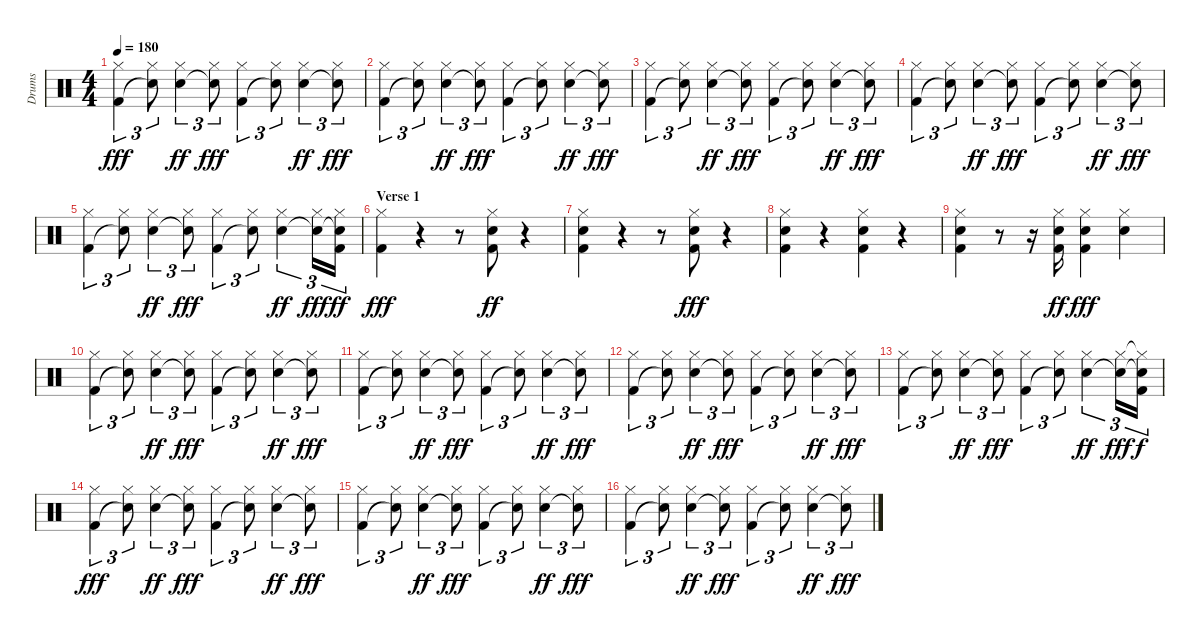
\track ("Drums" "Drums") {instrument percussion}
\staff {score}
\articulation defaults
\ts (4 4)
\tempo 180
\clef neutral
\ks c
("Hi-Hat (closed)" "Kick (hit) 2").4{tu (3 2) dy fff} ("Hi-Hat (closed)" "Snare (hit)"{t}).8{tu (3 2)} ("Hi-Hat (closed)" "Electric Snare (hit)").4{tu (3 2) dy ff} ("Hi-Hat (closed)" "Snare (hit)"{t}).8{tu (3 2) dy fff} ("Hi-Hat (closed)" "Kick (hit) 2").4{tu (3 2)} ("Hi-Hat (closed)" "Snare (hit)"{t}).8{tu (3 2)} ("Hi-Hat (closed)" "Electric Snare (hit)").4{tu (3 2) dy ff} ("Hi-Hat (closed)" "Snare (hit)"{t}).8{tu (3 2) dy fff} |
("Hi-Hat (closed)" "Kick (hit) 2").4{tu (3 2)} ("Hi-Hat (closed)" "Snare (hit)"{t}).8{tu (3 2)} ("Hi-Hat (closed)" "Electric Snare (hit)").4{tu (3 2) dy ff} ("Hi-Hat (closed)" "Snare (hit)"{t}).8{tu (3 2) dy fff} ("Hi-Hat (closed)" "Kick (hit) 2").4{tu (3 2)} ("Hi-Hat (closed)" "Snare (hit)"{t}).8{tu (3 2)} ("Hi-Hat (closed)" "Electric Snare (hit)").4{tu (3 2) dy ff} ("Hi-Hat (closed)" "Snare (hit)"{t}).8{tu (3 2) dy fff} |
("Hi-Hat (closed)" "Kick (hit) 2").4{tu (3 2)} ("Hi-Hat (closed)" "Snare (hit)"{t}).8{tu (3 2)} ("Hi-Hat (closed)" "Electric Snare (hit)").4{tu (3 2) dy ff} ("Hi-Hat (closed)" "Snare (hit)"{t}).8{tu (3 2) dy fff} ("Hi-Hat (closed)" "Kick (hit) 2").4{tu (3 2)} ("Hi-Hat (closed)" "Snare (hit)"{t}).8{tu (3 2)} ("Hi-Hat (closed)" "Electric Snare (hit)").4{tu (3 2) dy ff} ("Hi-Hat (closed)" "Snare (hit)"{t}).8{tu (3 2) dy fff} |
("Hi-Hat (closed)" "Kick (hit) 2").4{tu (3 2)} ("Hi-Hat (closed)" "Snare (hit)"{t}).8{tu (3 2)} ("Hi-Hat (closed)" "Electric Snare (hit)").4{tu (3 2) dy ff} ("Hi-Hat (closed)" "Snare (hit)"{t}).8{tu (3 2) dy fff} ("Hi-Hat (closed)" "Kick (hit) 2").4{tu (3 2)} ("Hi-Hat (closed)" "Snare (hit)"{t}).8{tu (3 2)} ("Hi-Hat (closed)" "Electric Snare (hit)").4{tu (3 2) dy ff} ("Hi-Hat (closed)" "Snare (hit)"{t}).8{tu (3 2) dy fff} |
("Hi-Hat (closed)" "Kick (hit) 2").4{tu (3 2)} ("Hi-Hat (closed)" "Snare (hit)"{t}).8{tu (3 2)} ("Hi-Hat (closed)" "Electric Snare (hit)").4{tu (3 2) dy ff} ("Hi-Hat (closed)" "Snare (hit)"{t}).8{tu (3 2) dy fff} ("Hi-Hat (closed)" "Kick (hit) 2").4{tu (3 2)} ("Hi-Hat (closed)" "Snare (hit)"{t}).8{tu (3 2)} ("Hi-Hat (closed)" "Electric Snare (hit)").4{tu (3 2) dy ff} ("Hi-Hat (closed)" "Snare (hit)"{t}).16{tu (3 2) dy fff} ("Hi-Hat (closed)" "Snare (hit)"{t} "Kick (hit) 2").16{tu (3 2) dy ff} |
\section ("" "Verse 1")
("Hi-Hat (closed)" "Kick (hit) 2").4{dy fff} r.4 r.8 ("Hi-Hat (closed)" "Electric Snare (hit)" "Kick (hit) 2").8{dy ff} r.4 |
("Hi-Hat (closed)" "Electric Snare (hit)" "Kick (hit) 2").4 r.4 r.8 ("Hi-Hat (closed)" "Electric Snare (hit)" "Kick (hit) 2").8{dy fff} r.4 |
("Hi-Hat (closed)" "Electric Snare (hit)" "Kick (hit) 2").4 r.4 ("Hi-Hat (closed)" "Electric Snare (hit)" "Kick (hit) 2").4 r.4 |
("Hi-Hat (closed)" "Electric Snare (hit)" "Kick (hit) 2").4 r.8 r.16 ("Hi-Hat (closed)" "Electric Snare (hit)" "Kick (hit) 2").16{dy ff} ("Hi-Hat (closed)" "Electric Snare (hit)" "Kick (hit) 2").4{dy fff} ("Hi-Hat (closed)" "Electric Snare (hit)").4 |
("Hi-Hat (closed)" "Kick (hit) 2").4{tu (3 2)} ("Hi-Hat (closed)" "Snare (hit)"{t}).8{tu (3 2)} ("Hi-Hat (closed)" "Electric Snare (hit)").4{tu (3 2) dy ff} ("Hi-Hat (closed)" "Snare (hit)"{t}).8{tu (3 2) dy fff} ("Hi-Hat (closed)" "Kick (hit) 2").4{tu (3 2)} ("Hi-Hat (closed)" "Snare (hit)"{t}).8{tu (3 2)} ("Hi-Hat (closed)" "Electric Snare (hit)").4{tu (3 2) dy ff} ("Hi-Hat (closed)" "Snare (hit)"{t}).8{tu (3 2) dy fff} |
("Hi-Hat (closed)" "Kick (hit) 2").4{tu (3 2)} ("Hi-Hat (closed)" "Snare (hit)"{t}).8{tu (3 2)} ("Hi-Hat (closed)" "Electric Snare (hit)").4{tu (3 2) dy ff} ("Hi-Hat (closed)" "Snare (hit)"{t}).8{tu (3 2) dy fff} ("Hi-Hat (closed)" "Kick (hit) 2").4{tu (3 2)} ("Hi-Hat (closed)" "Snare (hit)"{t}).8{tu (3 2)} ("Hi-Hat (closed)" "Electric Snare (hit)").4{tu (3 2) dy ff} ("Hi-Hat (closed)" "Snare (hit)"{t}).8{tu (3 2) dy fff} |
("Hi-Hat (closed)" "Kick (hit) 2").4{tu (3 2)} ("Hi-Hat (closed)" "Snare (hit)"{t}).8{tu (3 2)} ("Hi-Hat (closed)" "Electric Snare (hit)").4{tu (3 2) dy ff} ("Hi-Hat (closed)" "Snare (hit)"{t}).8{tu (3 2) dy fff} ("Hi-Hat (closed)" "Kick (hit) 2").4{tu (3 2)} ("Hi-Hat (closed)" "Snare (hit)"{t}).8{tu (3 2)} ("Hi-Hat (closed)" "Electric Snare (hit)").4{tu (3 2) dy ff} ("Hi-Hat (closed)" "Snare (hit)"{t}).8{tu (3 2) dy fff} |
("Hi-Hat (closed)" "Kick (hit) 2").4{tu (3 2)} ("Hi-Hat (closed)" "Snare (hit)"{t}).8{tu (3 2)} ("Hi-Hat (closed)" "Electric Snare (hit)").4{tu (3 2) dy ff} ("Hi-Hat (closed)" "Snare (hit)"{t}).8{tu (3 2) dy fff} ("Hi-Hat (closed)" "Kick (hit) 2").4{tu (3 2)} ("Hi-Hat (closed)" "Snare (hit)"{t}).8{tu (3 2)} ("Hi-Hat (closed)" "Electric Snare (hit)").4{tu (3 2) dy ff} ("Hi-Hat (closed)" "Snare (hit)"{t}).16{tu (3 2) dy fff} ("Hi-Hat (closed)"{t} "Snare (hit)"{t} "Kick (hit) 2").16{tu (3 2) dy f} |
("Hi-Hat (closed)" "Kick (hit) 2").4{tu (3 2) dy fff} ("Hi-Hat (closed)" "Snare (hit)"{t}).8{tu (3 2)} ("Hi-Hat (closed)" "Electric Snare (hit)").4{tu (3 2) dy ff} ("Hi-Hat (closed)" "Snare (hit)"{t}).8{tu (3 2) dy fff} ("Hi-Hat (closed)" "Kick (hit) 2").4{tu (3 2)} ("Hi-Hat (closed)" "Snare (hit)"{t}).8{tu (3 2)} ("Hi-Hat (closed)" "Electric Snare (hit)").4{tu (3 2) dy ff} ("Hi-Hat (closed)" "Snare (hit)"{t}).8{tu (3 2) dy fff} |
("Hi-Hat (closed)" "Kick (hit) 2").4{tu (3 2)} ("Hi-Hat (closed)" "Snare (hit)"{t}).8{tu (3 2)} ("Hi-Hat (closed)" "Electric Snare (hit)").4{tu (3 2) dy ff} ("Hi-Hat (closed)" "Snare (hit)"{t}).8{tu (3 2) dy fff} ("Hi-Hat (closed)" "Kick (hit) 2").4{tu (3 2)} ("Hi-Hat (closed)" "Snare (hit)"{t}).8{tu (3 2)} ("Hi-Hat (closed)" "Electric Snare (hit)").4{tu (3 2) dy ff} ("Hi-Hat (closed)" "Snare (hit)"{t}).8{tu (3 2) dy fff} |
("Hi-Hat (closed)" "Kick (hit) 2").4{tu (3 2)} ("Hi-Hat (closed)" "Snare (hit)"{t}).8{tu (3 2)} ("Hi-Hat (closed)" "Electric Snare (hit)").4{tu (3 2) dy ff} ("Hi-Hat (closed)" "Snare (hit)"{t}).8{tu (3 2) dy fff} ("Hi-Hat (closed)" "Kick (hit) 2").4{tu (3 2)} ("Hi-Hat (closed)" "Snare (hit)"{t}).8{tu (3 2)} ("Hi-Hat (closed)" "Electric Snare (hit)").4{tu (3 2) dy ff} ("Hi-Hat (closed)" "Snare (hit)"{t}).8{tu (3 2) dy fff}
